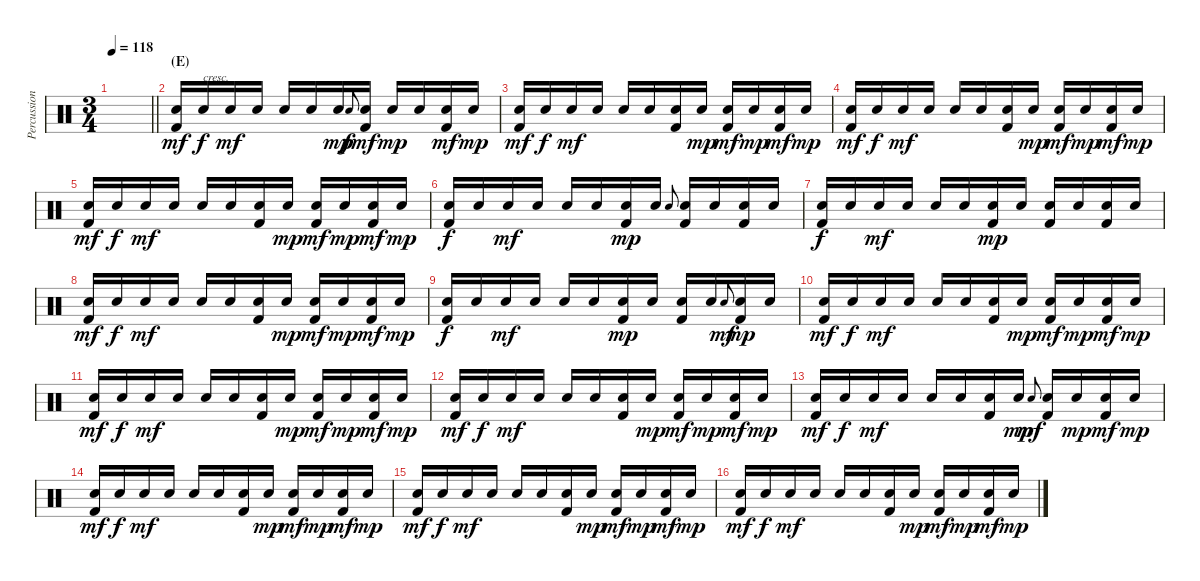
\track ("Percussion" "Percussion") {instrument percussion}
\staff {score}
\articulation defaults
\ts (3 4)
\tempo 118
\clef neutral
\barLineRight lightlight
\ks c
|
\section ("" "(E)")
("Snare (hit) 2" "Kick (hit) 2").16{dy mf volume 1} "Snare (hit) 2".16{txt "cresc." dy f volume 3} "Snare (hit) 2".16{dy mf} "Snare (hit) 2".16 "Snare (hit) 2".16 "Snare (hit) 2".16 "Snare (hit) 2".16{dy mp} "Snare (hit) 2".8{gr onbeat dy f} ("Snare (hit) 2" "Kick (hit) 2").16{dy mf} "Snare (hit) 2".16{dy mp} "Snare (hit) 2".16 ("Snare (hit) 2" "Kick (hit) 2").16{dy mf} "Snare (hit) 2".16{dy mp} |
("Snare (hit) 2" "Kick (hit) 2").16{dy mf} "Snare (hit) 2".16{dy f} "Snare (hit) 2".16{dy mf} "Snare (hit) 2".16 "Snare (hit) 2".16 "Snare (hit) 2".16 ("Snare (hit) 2" "Kick (hit) 2").16 "Snare (hit) 2".16{dy mp} ("Snare (hit) 2" "Kick (hit) 2").16{dy mf} "Snare (hit) 2".16{dy mp} ("Snare (hit) 2" "Kick (hit) 2").16{dy mf} "Snare (hit) 2".16{dy mp} |
("Snare (hit) 2" "Kick (hit) 2").16{dy mf} "Snare (hit) 2".16{dy f} "Snare (hit) 2".16{dy mf} "Snare (hit) 2".16 "Snare (hit) 2".16 "Snare (hit) 2".16 ("Snare (hit) 2" "Kick (hit) 2").16 "Snare (hit) 2".16{dy mp} ("Snare (hit) 2" "Kick (hit) 2").16{dy mf} "Snare (hit) 2".16{dy mp} ("Snare (hit) 2" "Kick (hit) 2").16{dy mf} "Snare (hit) 2".16{dy mp} |
("Snare (hit) 2" "Kick (hit) 2").16{dy mf} "Snare (hit) 2".16{dy f} "Snare (hit) 2".16{dy mf} "Snare (hit) 2".16 "Snare (hit) 2".16 "Snare (hit) 2".16 ("Snare (hit) 2" "Kick (hit) 2").16 "Snare (hit) 2".16{dy mp} ("Snare (hit) 2" "Kick (hit) 2").16{dy mf} "Snare (hit) 2".16{dy mp} ("Snare (hit) 2" "Kick (hit) 2").16{dy mf} "Snare (hit) 2".16{dy mp} |
("Snare (hit) 2" "Kick (hit) 2").16{dy f} "Snare (hit) 2".16 "Snare (hit) 2".16{dy mf} "Snare (hit) 2".16 "Snare (hit) 2".16 "Snare (hit) 2".16 ("Snare (hit) 2" "Kick (hit) 2").16{dy mp} "Snare (hit) 2".16 "Snare (hit) 2".8{gr onbeat} ("Snare (hit) 2" "Kick (hit) 2").16 "Snare (hit) 2".16 ("Snare (hit) 2" "Kick (hit) 2").16 "Snare (hit) 2".16 |
("Snare (hit) 2" "Kick (hit) 2").16{dy f} "Snare (hit) 2".16 "Snare (hit) 2".16{dy mf} "Snare (hit) 2".16 "Snare (hit) 2".16 "Snare (hit) 2".16 ("Snare (hit) 2" "Kick (hit) 2").16{dy mp volume 5} "Snare (hit) 2".16 ("Snare (hit) 2" "Kick (hit) 2").16 "Snare (hit) 2".16 ("Snare (hit) 2" "Kick (hit) 2").16 "Snare (hit) 2".16 |
("Snare (hit) 2" "Kick (hit) 2").16{dy mf} "Snare (hit) 2".16{dy f} "Snare (hit) 2".16{dy mf} "Snare (hit) 2".16 "Snare (hit) 2".16 "Snare (hit) 2".16 ("Snare (hit) 2" "Kick (hit) 2").16 "Snare (hit) 2".16{dy mp} ("Snare (hit) 2" "Kick (hit) 2").16{dy mf} "Snare (hit) 2".16{dy mp} ("Snare (hit) 2" "Kick (hit) 2").16{dy mf} "Snare (hit) 2".16{dy mp} |
("Snare (hit) 2" "Kick (hit) 2").16{dy f} "Snare (hit) 2".16 "Snare (hit) 2".16{dy mf} "Snare (hit) 2".16 "Snare (hit) 2".16 "Snare (hit) 2".16 ("Snare (hit) 2" "Kick (hit) 2").16{dy mp} "Snare (hit) 2".16 ("Snare (hit) 2" "Kick (hit) 2").16 "Snare (hit) 2".16 "Snare (hit) 2".8{gr onbeat dy mf} ("Snare (hit) 2" "Kick (hit) 2").16{dy mp} "Snare (hit) 2".16 |
("Snare (hit) 2" "Kick (hit) 2").16{dy mf} "Snare (hit) 2".16{dy f} "Snare (hit) 2".16{dy mf} "Snare (hit) 2".16 "Snare (hit) 2".16 "Snare (hit) 2".16 ("Snare (hit) 2" "Kick (hit) 2").16 "Snare (hit) 2".16{dy mp} ("Snare (hit) 2" "Kick (hit) 2").16{dy mf} "Snare (hit) 2".16{dy mp} ("Snare (hit) 2" "Kick (hit) 2").16{dy mf} "Snare (hit) 2".16{dy mp} |
("Snare (hit) 2" "Kick (hit) 2").16{dy mf} "Snare (hit) 2".16{dy f} "Snare (hit) 2".16{dy mf} "Snare (hit) 2".16 "Snare (hit) 2".16 "Snare (hit) 2".16 ("Snare (hit) 2" "Kick (hit) 2").16 "Snare (hit) 2".16{dy mp} ("Snare (hit) 2" "Kick (hit) 2").16{dy mf} "Snare (hit) 2".16{dy mp} ("Snare (hit) 2" "Kick (hit) 2").16{dy mf} "Snare (hit) 2".16{dy mp} |
("Snare (hit) 2" "Kick (hit) 2").16{dy mf} "Snare (hit) 2".16{dy f} "Snare (hit) 2".16{dy mf} "Snare (hit) 2".16 "Snare (hit) 2".16 "Snare (hit) 2".16 ("Snare (hit) 2" "Kick (hit) 2").16 "Snare (hit) 2".16{dy mp} ("Snare (hit) 2" "Kick (hit) 2").16{dy mf} "Snare (hit) 2".16{dy mp} ("Snare (hit) 2" "Kick (hit) 2").16{dy mf} "Snare (hit) 2".16{dy mp volume 8} |
("Snare (hit) 2" "Kick (hit) 2").16{dy mf} "Snare (hit) 2".16{dy f} "Snare (hit) 2".16{dy mf} "Snare (hit) 2".16 "Snare (hit) 2".16 "Snare (hit) 2".16 ("Snare (hit) 2" "Kick (hit) 2").16 "Snare (hit) 2".16{dy mp} "Snare (hit) 2".8{gr onbeat dy mf} ("Snare (hit) 2" "Kick (hit) 2").16 "Snare (hit) 2".16{dy mp} ("Snare (hit) 2" "Kick (hit) 2").16{dy mf} "Snare (hit) 2".16{dy mp} |
("Snare (hit) 2" "Kick (hit) 2").16{dy mf} "Snare (hit) 2".16{dy f} "Snare (hit) 2".16{dy mf} "Snare (hit) 2".16 "Snare (hit) 2".16 "Snare (hit) 2".16 ("Snare (hit) 2" "Kick (hit) 2").16 "Snare (hit) 2".16{dy mp} ("Snare (hit) 2" "Kick (hit) 2").16{dy mf} "Snare (hit) 2".16{dy mp} ("Snare (hit) 2" "Kick (hit) 2").16{dy mf} "Snare (hit) 2".16{dy mp} |
("Snare (hit) 2" "Kick (hit) 2").16{dy mf} "Snare (hit) 2".16{dy f} "Snare (hit) 2".16{dy mf} "Snare (hit) 2".16 "Snare (hit) 2".16 "Snare (hit) 2".16 ("Snare (hit) 2" "Kick (hit) 2").16 "Snare (hit) 2".16{dy mp} ("Snare (hit) 2" "Kick (hit) 2").16{dy mf} "Snare (hit) 2".16{dy mp} ("Snare (hit) 2" "Kick (hit) 2").16{dy mf} "Snare (hit) 2".16{dy mp} |
("Snare (hit) 2" "Kick (hit) 2").16{dy mf} "Snare (hit) 2".16{dy f} "Snare (hit) 2".16{dy mf} "Snare (hit) 2".16 "Snare (hit) 2".16 "Snare (hit) 2".16 ("Snare (hit) 2" "Kick (hit) 2").16 "Snare (hit) 2".16{dy mp} ("Snare (hit) 2" "Kick (hit) 2").16{dy mf} "Snare (hit) 2".16{dy mp} ("Snare (hit) 2" "Kick (hit) 2").16{dy mf} "Snare (hit) 2".16{dy mp}
